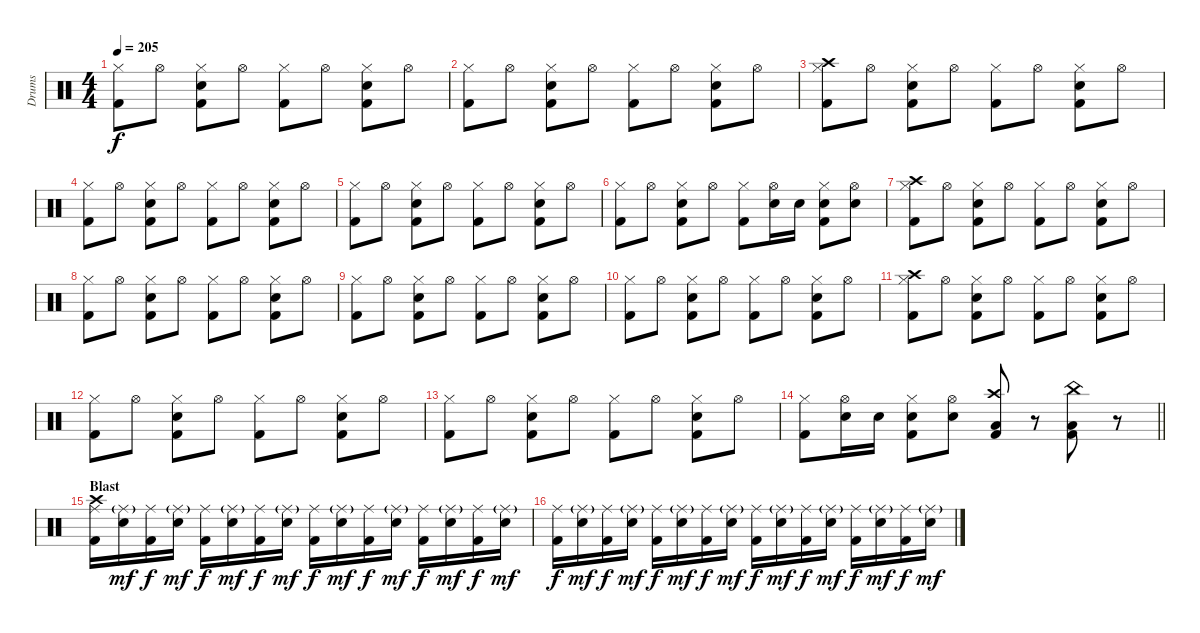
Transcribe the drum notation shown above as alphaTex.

\track ("Drums" "Drums") {instrument percussion}
\staff {score}
\articulation defaults
\ts (4 4)
\tempo 205
\clef neutral
\ks c
("Hi-Hat (closed)" "Kick (hit) 2").8{dy f} "Hi-Hat (open)".8 ("Hi-Hat (closed)" "Snare (hit) 2" "Kick (hit) 2").8 "Hi-Hat (open)".8 ("Hi-Hat (closed)" "Kick (hit) 2").8 "Hi-Hat (open)".8 ("Hi-Hat (closed)" "Snare (hit) 2" "Kick (hit) 2").8 "Hi-Hat (open)".8 |
("Hi-Hat (closed)" "Kick (hit) 2").8 "Hi-Hat (open)".8 ("Hi-Hat (closed)" "Snare (hit) 2" "Kick (hit) 2").8 "Hi-Hat (open)".8 ("Hi-Hat (closed)" "Kick (hit) 2").8 "Hi-Hat (open)".8 ("Hi-Hat (closed)" "Snare (hit) 2" "Kick (hit) 2").8 "Hi-Hat (open)".8 |
("Crash high (hit)" "Hi-Hat (closed)" "Kick (hit) 2").8 "Hi-Hat (open)".8 ("Hi-Hat (closed)" "Snare (hit) 2" "Kick (hit) 2").8 "Hi-Hat (open)".8 ("Hi-Hat (closed)" "Kick (hit) 2").8 "Hi-Hat (open)".8 ("Hi-Hat (closed)" "Snare (hit) 2" "Kick (hit) 2").8 "Hi-Hat (open)".8 |
("Hi-Hat (closed)" "Kick (hit) 2").8 "Hi-Hat (open)".8 ("Hi-Hat (closed)" "Snare (hit) 2" "Kick (hit) 2").8 "Hi-Hat (open)".8 ("Hi-Hat (closed)" "Kick (hit) 2").8 "Hi-Hat (open)".8 ("Hi-Hat (closed)" "Snare (hit) 2" "Kick (hit) 2").8 "Hi-Hat (open)".8 |
("Hi-Hat (closed)" "Kick (hit) 2").8 "Hi-Hat (open)".8 ("Hi-Hat (closed)" "Snare (hit) 2" "Kick (hit) 2").8 "Hi-Hat (open)".8 ("Hi-Hat (closed)" "Kick (hit) 2").8 "Hi-Hat (open)".8 ("Hi-Hat (closed)" "Snare (hit) 2" "Kick (hit) 2").8 "Hi-Hat (open)".8 |
("Hi-Hat (closed)" "Kick (hit) 2").8 "Hi-Hat (open)".8 ("Hi-Hat (closed)" "Snare (hit) 2" "Kick (hit) 2").8 "Hi-Hat (open)".8 ("Hi-Hat (closed)" "Kick (hit) 2").8 ("Hi-Hat (open)" "Snare (hit) 2").16 "Snare (hit) 2".16 ("Hi-Hat (closed)" "Snare (hit) 2" "Kick (hit) 2").8 ("Hi-Hat (open)" "Snare (hit) 2").8 |
("Crash high (hit)" "Hi-Hat (closed)" "Kick (hit) 2").8 "Hi-Hat (open)".8 ("Hi-Hat (closed)" "Snare (hit) 2" "Kick (hit) 2").8 "Hi-Hat (open)".8 ("Hi-Hat (closed)" "Kick (hit) 2").8 "Hi-Hat (open)".8 ("Hi-Hat (closed)" "Snare (hit) 2" "Kick (hit) 2").8 "Hi-Hat (open)".8 |
("Hi-Hat (closed)" "Kick (hit) 2").8 "Hi-Hat (open)".8 ("Hi-Hat (closed)" "Snare (hit) 2" "Kick (hit) 2").8 "Hi-Hat (open)".8 ("Hi-Hat (closed)" "Kick (hit) 2").8 "Hi-Hat (open)".8 ("Hi-Hat (closed)" "Snare (hit) 2" "Kick (hit) 2").8 "Hi-Hat (open)".8 |
("Hi-Hat (closed)" "Kick (hit) 2").8 "Hi-Hat (open)".8 ("Hi-Hat (closed)" "Snare (hit) 2" "Kick (hit) 2").8 "Hi-Hat (open)".8 ("Hi-Hat (closed)" "Kick (hit) 2").8 "Hi-Hat (open)".8 ("Hi-Hat (closed)" "Snare (hit) 2" "Kick (hit) 2").8 "Hi-Hat (open)".8 |
("Hi-Hat (closed)" "Kick (hit) 2").8 "Hi-Hat (open)".8 ("Hi-Hat (closed)" "Snare (hit) 2" "Kick (hit) 2").8 "Hi-Hat (open)".8 ("Hi-Hat (closed)" "Kick (hit) 2").8 "Hi-Hat (open)".8 ("Hi-Hat (closed)" "Snare (hit) 2" "Kick (hit) 2").8 "Hi-Hat (open)".8 |
("Crash high (hit)" "Hi-Hat (closed)" "Kick (hit) 2").8 "Hi-Hat (open)".8 ("Hi-Hat (closed)" "Snare (hit) 2" "Kick (hit) 2").8 "Hi-Hat (open)".8 ("Hi-Hat (closed)" "Kick (hit) 2").8 "Hi-Hat (open)".8 ("Hi-Hat (closed)" "Snare (hit) 2" "Kick (hit) 2").8 "Hi-Hat (open)".8 |
("Hi-Hat (closed)" "Kick (hit) 2").8 "Hi-Hat (open)".8 ("Hi-Hat (closed)" "Snare (hit) 2" "Kick (hit) 2").8 "Hi-Hat (open)".8 ("Hi-Hat (closed)" "Kick (hit) 2").8 "Hi-Hat (open)".8 ("Hi-Hat (closed)" "Snare (hit) 2" "Kick (hit) 2").8 "Hi-Hat (open)".8 |
("Hi-Hat (closed)" "Kick (hit) 2").8 "Hi-Hat (open)".8 ("Hi-Hat (closed)" "Snare (hit) 2" "Kick (hit) 2").8 "Hi-Hat (open)".8 ("Hi-Hat (closed)" "Kick (hit) 2").8 "Hi-Hat (open)".8 ("Hi-Hat (closed)" "Snare (hit) 2" "Kick (hit) 2").8 "Hi-Hat (open)".8 |
\barLineRight lightlight
("Hi-Hat (closed)" "Kick (hit) 2").8 ("Hi-Hat (open)" "Snare (hit) 2").16 "Snare (hit) 2".16 ("Hi-Hat (closed)" "Snare (hit) 2" "Kick (hit) 2").8 ("Hi-Hat (open)" "Snare (hit) 2").8 ("Crash high (hit)" "Low Floor Tom (hit)" "Kick (hit) 2").8 r.8 ("China (hit)" "Low Floor Tom (hit)" "Kick (hit) 2").8 r.8 |
\section ("" "Blast")
("Crash high (hit)" "Ride (middle)" "Kick (hit) 2").16 ("Ride (middle)"{g} "Snare (hit) 2").16{dy mf} ("Ride (middle)" "Kick (hit) 2").16{dy f} ("Ride (middle)"{g} "Snare (hit) 2").16{dy mf} ("Ride (middle)" "Kick (hit) 2").16{dy f} ("Ride (middle)"{g} "Snare (hit) 2").16{dy mf} ("Ride (middle)" "Kick (hit) 2").16{dy f} ("Ride (middle)"{g} "Snare (hit) 2").16{dy mf} ("Ride (middle)" "Kick (hit) 2").16{dy f} ("Ride (middle)"{g} "Snare (hit) 2").16{dy mf} ("Ride (middle)" "Kick (hit) 2").16{dy f} ("Ride (middle)"{g} "Snare (hit) 2").16{dy mf} ("Ride (middle)" "Kick (hit) 2").16{dy f} ("Ride (middle)"{g} "Snare (hit) 2").16{dy mf} ("Ride (middle)" "Kick (hit) 2").16{dy f} ("Ride (middle)"{g} "Snare (hit) 2").16{dy mf} |
("Ride (middle)" "Kick (hit) 2").16{dy f} ("Ride (middle)"{g} "Snare (hit) 2").16{dy mf} ("Ride (middle)" "Kick (hit) 2").16{dy f} ("Ride (middle)"{g} "Snare (hit) 2").16{dy mf} ("Ride (middle)" "Kick (hit) 2").16{dy f} ("Ride (middle)"{g} "Snare (hit) 2").16{dy mf} ("Ride (middle)" "Kick (hit) 2").16{dy f} ("Ride (middle)"{g} "Snare (hit) 2").16{dy mf} ("Ride (middle)" "Kick (hit) 2").16{dy f} ("Ride (middle)"{g} "Snare (hit) 2").16{dy mf} ("Ride (middle)" "Kick (hit) 2").16{dy f} ("Ride (middle)"{g} "Snare (hit) 2").16{dy mf} ("Ride (middle)" "Kick (hit) 2").16{dy f} ("Ride (middle)"{g} "Snare (hit) 2").16{dy mf} ("Ride (middle)" "Kick (hit) 2").16{dy f} ("Ride (middle)"{g} "Snare (hit) 2").16{dy mf}
